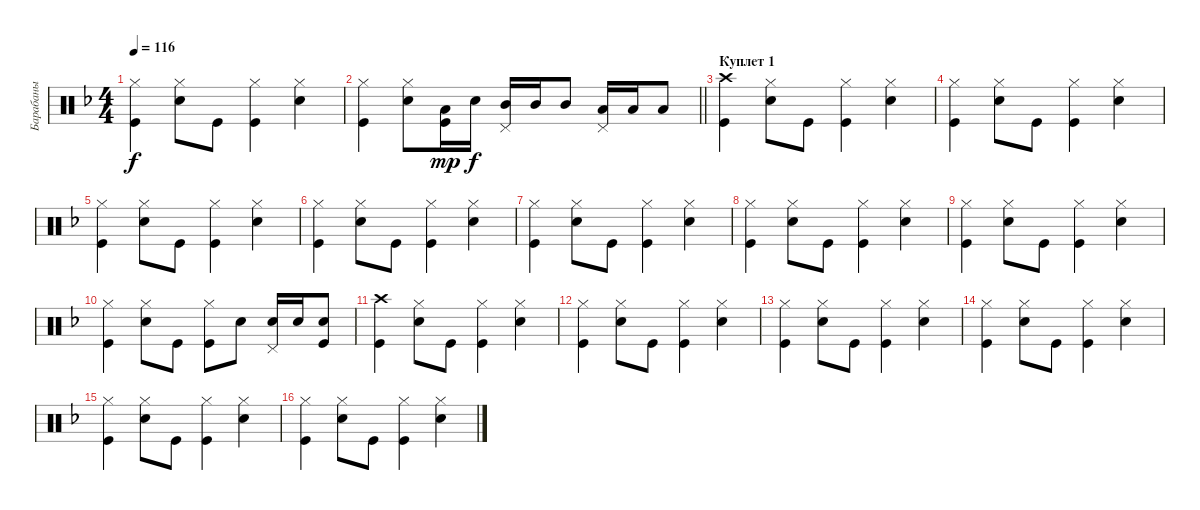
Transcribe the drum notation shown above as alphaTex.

\track ("Барабаны" "Барабаны") {instrument percussion}
\staff {score}
\articulation defaults
\ts (4 4)
\tempo 116
\clef neutral
\ks dminor
("Hi-Hat (closed)" "Kick (hit)").4{dy f} ("Hi-Hat (closed)" "Snare (hit) 2").8 "Kick (hit)".8 ("Hi-Hat (closed)" "Kick (hit)").4 ("Hi-Hat (closed)" "Snare (hit) 2").4 |
\barLineRight lightlight
("Hi-Hat (closed)" "Kick (hit)").4 ("Hi-Hat (closed)" "Snare (hit) 2").8 ("Low Floor Tom (hit)" "Kick (hit)").16{dy mp} "Snare (hit) 2".16{dy f} ("Mid Tom (hit)" "Pedal Hi-Hat (hit)").16 "Mid Tom (hit)".16 "Mid Tom (hit)".8 ("Pedal Hi-Hat (hit)" "Low Tom (hit)").16 "Low Tom (hit)".16 "Low Tom (hit)".8 |
\section ("" "Куплет 1")
("Crash high (hit)" "Kick (hit)").4 ("Hi-Hat (closed)" "Snare (hit) 2").8 "Kick (hit)".8 ("Hi-Hat (closed)" "Kick (hit)").4 ("Hi-Hat (closed)" "Snare (hit) 2").4 |
("Hi-Hat (closed)" "Kick (hit)").4 ("Hi-Hat (closed)" "Snare (hit) 2").8 "Kick (hit)".8 ("Hi-Hat (closed)" "Kick (hit)").4 ("Hi-Hat (closed)" "Snare (hit) 2").4 |
("Hi-Hat (closed)" "Kick (hit)").4 ("Hi-Hat (closed)" "Snare (hit) 2").8 "Kick (hit)".8 ("Hi-Hat (closed)" "Kick (hit)").4 ("Hi-Hat (closed)" "Snare (hit) 2").4 |
("Hi-Hat (closed)" "Kick (hit)").4 ("Hi-Hat (closed)" "Snare (hit) 2").8 "Kick (hit)".8 ("Hi-Hat (closed)" "Kick (hit)").4 ("Hi-Hat (closed)" "Snare (hit) 2").4 |
("Hi-Hat (closed)" "Kick (hit)").4 ("Hi-Hat (closed)" "Snare (hit) 2").8 "Kick (hit)".8 ("Hi-Hat (closed)" "Kick (hit)").4 ("Hi-Hat (closed)" "Snare (hit) 2").4 |
("Hi-Hat (closed)" "Kick (hit)").4 ("Hi-Hat (closed)" "Snare (hit) 2").8 "Kick (hit)".8 ("Hi-Hat (closed)" "Kick (hit)").4 ("Hi-Hat (closed)" "Snare (hit) 2").4 |
("Hi-Hat (closed)" "Kick (hit)").4 ("Hi-Hat (closed)" "Snare (hit) 2").8 "Kick (hit)".8 ("Hi-Hat (closed)" "Kick (hit)").4 ("Hi-Hat (closed)" "Snare (hit) 2").4 |
("Hi-Hat (closed)" "Kick (hit)").4 ("Hi-Hat (closed)" "Snare (hit) 2").8 "Kick (hit)".8 ("Hi-Hat (closed)" "Kick (hit)").8 "Snare (hit) 2".8 ("Snare (hit) 2" "Pedal Hi-Hat (hit)").16 "Snare (hit) 2".16 ("Snare (hit) 2" "Kick (hit)").8 |
("Crash high (hit)" "Kick (hit)").4 ("Hi-Hat (closed)" "Snare (hit) 2").8 "Kick (hit)".8 ("Hi-Hat (closed)" "Kick (hit)").4 ("Hi-Hat (closed)" "Snare (hit) 2").4 |
("Hi-Hat (closed)" "Kick (hit)").4 ("Hi-Hat (closed)" "Snare (hit) 2").8 "Kick (hit)".8 ("Hi-Hat (closed)" "Kick (hit)").4 ("Hi-Hat (closed)" "Snare (hit) 2").4 |
("Hi-Hat (closed)" "Kick (hit)").4 ("Hi-Hat (closed)" "Snare (hit) 2").8 "Kick (hit)".8 ("Hi-Hat (closed)" "Kick (hit)").4 ("Hi-Hat (closed)" "Snare (hit) 2").4 |
("Hi-Hat (closed)" "Kick (hit)").4 ("Hi-Hat (closed)" "Snare (hit) 2").8 "Kick (hit)".8 ("Hi-Hat (closed)" "Kick (hit)").4 ("Hi-Hat (closed)" "Snare (hit) 2").4 |
("Hi-Hat (closed)" "Kick (hit)").4 ("Hi-Hat (closed)" "Snare (hit) 2").8 "Kick (hit)".8 ("Hi-Hat (closed)" "Kick (hit)").4 ("Hi-Hat (closed)" "Snare (hit) 2").4 |
("Hi-Hat (closed)" "Kick (hit)").4 ("Hi-Hat (closed)" "Snare (hit) 2").8 "Kick (hit)".8 ("Hi-Hat (closed)" "Kick (hit)").4 ("Hi-Hat (closed)" "Snare (hit) 2").4
